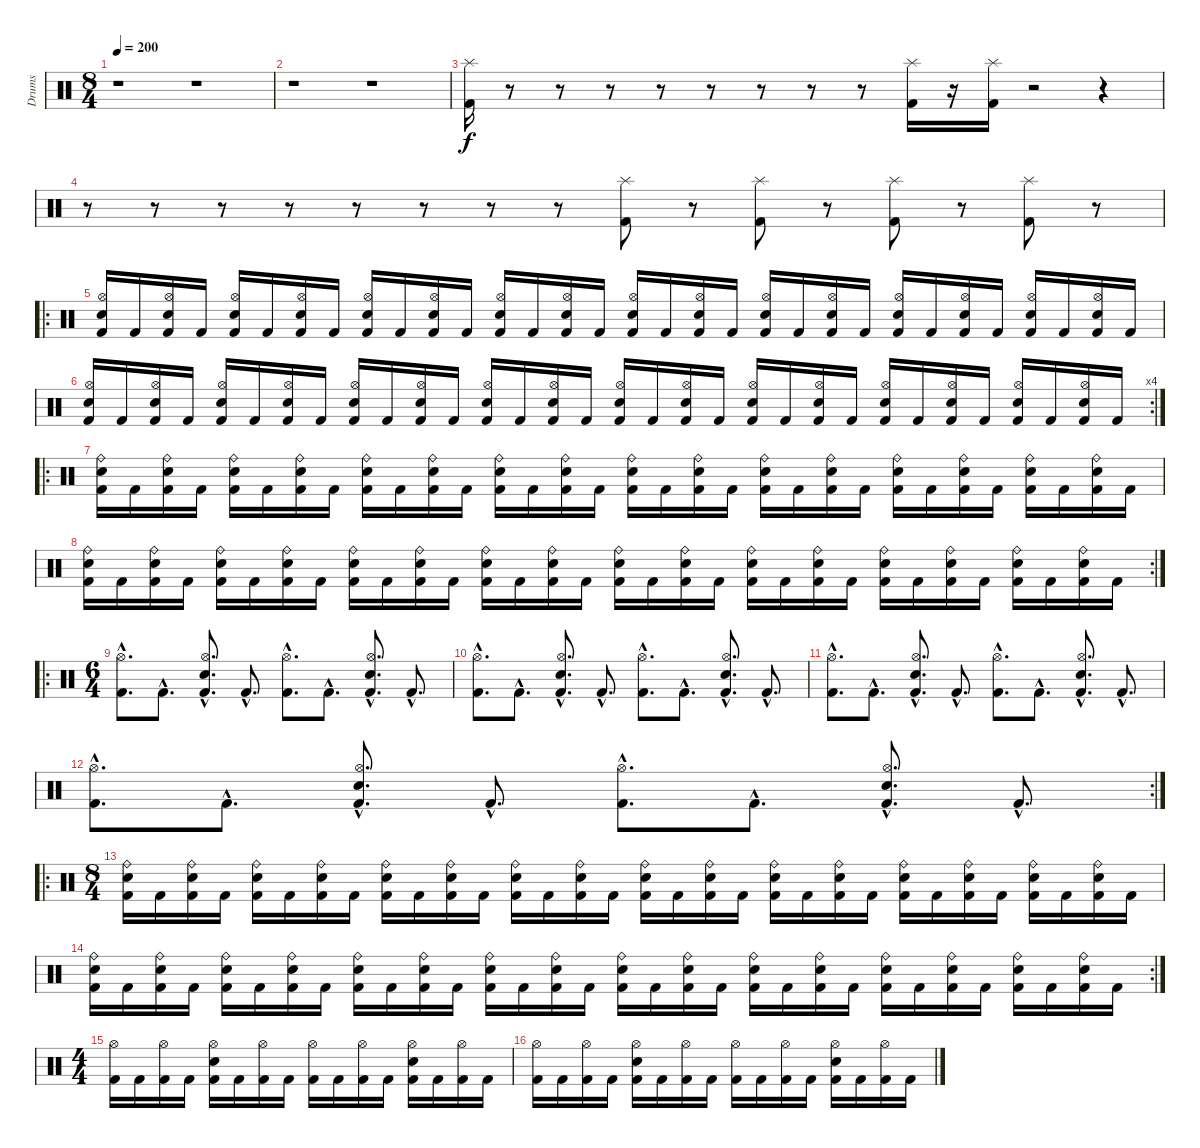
\track ("Drums" "Drums") {instrument percussion}
\staff {score}
\articulation defaults
\ts (8 4)
\tempo 200
\clef neutral
\ks c
r.1{dy f} r.1 |
r.1 r.1 |
("Splash (hit)" "Kick (hit) 2"{pm}).16 r.8 r.8 r.8 r.8 r.8 r.8 r.8 r.8 ("Splash (hit)" "Kick (hit) 2"{pm}).16 r.16 ("Splash (hit)" "Kick (hit) 2"{pm}).16 r.2 r.4 |
r.8 r.8 r.8 r.8 r.8 r.8 r.8 r.8 ("Splash (hit)" "Kick (hit) 2").8 r.8 ("Splash (hit)" "Kick (hit) 2"{pm}).8 r.8 ("Splash (hit)" "Kick (hit) 2"{pm}).8 r.8 ("Splash (hit)" "Kick (hit) 2"{pm}).8 r.8 |
\ro
("Hi-Hat (open)" "Snare (hit) 2" "Kick (hit) 2").16 "Kick (hit) 2".16 ("Hi-Hat (open)" "Snare (hit) 2" "Kick (hit) 2").16 "Kick (hit) 2".16 ("Hi-Hat (open)" "Snare (hit) 2" "Kick (hit) 2").16 "Kick (hit) 2".16 ("Hi-Hat (open)" "Snare (hit) 2" "Kick (hit) 2").16 "Kick (hit) 2".16 ("Hi-Hat (open)" "Snare (hit) 2" "Kick (hit) 2").16 "Kick (hit) 2".16 ("Hi-Hat (open)" "Snare (hit) 2" "Kick (hit) 2").16 "Kick (hit) 2".16 ("Hi-Hat (open)" "Snare (hit) 2" "Kick (hit) 2").16 "Kick (hit) 2".16 ("Hi-Hat (open)" "Snare (hit) 2" "Kick (hit) 2").16 "Kick (hit) 2".16 ("Hi-Hat (open)" "Snare (hit) 2" "Kick (hit) 2").16 "Kick (hit) 2".16 ("Hi-Hat (open)" "Snare (hit) 2" "Kick (hit) 2").16 "Kick (hit) 2".16 ("Hi-Hat (open)" "Snare (hit) 2" "Kick (hit) 2").16 "Kick (hit) 2".16 ("Hi-Hat (open)" "Snare (hit) 2" "Kick (hit) 2").16 "Kick (hit) 2".16 ("Hi-Hat (open)" "Snare (hit) 2" "Kick (hit) 2").16 "Kick (hit) 2".16 ("Hi-Hat (open)" "Snare (hit) 2" "Kick (hit) 2").16 "Kick (hit) 2".16 ("Hi-Hat (open)" "Snare (hit) 2" "Kick (hit) 2").16 "Kick (hit) 2".16 ("Hi-Hat (open)" "Snare (hit) 2" "Kick (hit) 2").16 "Kick (hit) 2".16 |
\rc 4
("Hi-Hat (open)" "Snare (hit) 2" "Kick (hit) 2").16 "Kick (hit) 2".16 ("Hi-Hat (open)" "Snare (hit) 2" "Kick (hit) 2").16 "Kick (hit) 2".16 ("Hi-Hat (open)" "Snare (hit) 2" "Kick (hit) 2").16 "Kick (hit) 2".16 ("Hi-Hat (open)" "Snare (hit) 2" "Kick (hit) 2").16 "Kick (hit) 2".16 ("Hi-Hat (open)" "Snare (hit) 2" "Kick (hit) 2").16 "Kick (hit) 2".16 ("Hi-Hat (open)" "Snare (hit) 2" "Kick (hit) 2").16 "Kick (hit) 2".16 ("Hi-Hat (open)" "Snare (hit) 2" "Kick (hit) 2").16 "Kick (hit) 2".16 ("Hi-Hat (open)" "Snare (hit) 2" "Kick (hit) 2").16 "Kick (hit) 2".16 ("Hi-Hat (open)" "Snare (hit) 2" "Kick (hit) 2").16 "Kick (hit) 2".16 ("Hi-Hat (open)" "Snare (hit) 2" "Kick (hit) 2").16 "Kick (hit) 2".16 ("Hi-Hat (open)" "Snare (hit) 2" "Kick (hit) 2").16 "Kick (hit) 2".16 ("Hi-Hat (open)" "Snare (hit) 2" "Kick (hit) 2").16 "Kick (hit) 2".16 ("Hi-Hat (open)" "Snare (hit) 2" "Kick (hit) 2").16 "Kick (hit) 2".16 ("Hi-Hat (open)" "Snare (hit) 2" "Kick (hit) 2").16 "Kick (hit) 2".16 ("Hi-Hat (open)" "Snare (hit) 2" "Kick (hit) 2").16 "Kick (hit) 2".16 ("Hi-Hat (open)" "Snare (hit) 2" "Kick (hit) 2").16 "Kick (hit) 2".16 |
\ro
("Ride (bell)" "Snare (hit) 2" "Kick (hit) 2").16 "Kick (hit) 2".16 ("Ride (bell)" "Snare (hit) 2" "Kick (hit) 2").16 "Kick (hit) 2".16 ("Ride (bell)" "Snare (hit) 2" "Kick (hit) 2").16 "Kick (hit) 2".16 ("Ride (bell)" "Snare (hit) 2" "Kick (hit) 2").16 "Kick (hit) 2".16 ("Ride (bell)" "Snare (hit) 2" "Kick (hit) 2").16 "Kick (hit) 2".16 ("Ride (bell)" "Snare (hit) 2" "Kick (hit) 2").16 "Kick (hit) 2".16 ("Ride (bell)" "Snare (hit) 2" "Kick (hit) 2").16 "Kick (hit) 2".16 ("Ride (bell)" "Snare (hit) 2" "Kick (hit) 2").16 "Kick (hit) 2".16 ("Ride (bell)" "Snare (hit) 2" "Kick (hit) 2").16 "Kick (hit) 2".16 ("Ride (bell)" "Snare (hit) 2" "Kick (hit) 2").16 "Kick (hit) 2".16 ("Ride (bell)" "Snare (hit) 2" "Kick (hit) 2").16 "Kick (hit) 2".16 ("Ride (bell)" "Snare (hit) 2" "Kick (hit) 2").16 "Kick (hit) 2".16 ("Ride (bell)" "Snare (hit) 2" "Kick (hit) 2").16 "Kick (hit) 2".16 ("Ride (bell)" "Snare (hit) 2" "Kick (hit) 2").16 "Kick (hit) 2".16 ("Ride (bell)" "Snare (hit) 2" "Kick (hit) 2").16 "Kick (hit) 2".16 ("Ride (bell)" "Snare (hit) 2" "Kick (hit) 2").16 "Kick (hit) 2".16 |
\rc 2
("Ride (bell)" "Snare (hit) 2" "Kick (hit) 2").16 "Kick (hit) 2".16 ("Ride (bell)" "Snare (hit) 2" "Kick (hit) 2").16 "Kick (hit) 2".16 ("Ride (bell)" "Snare (hit) 2" "Kick (hit) 2").16 "Kick (hit) 2".16 ("Ride (bell)" "Snare (hit) 2" "Kick (hit) 2").16 "Kick (hit) 2".16 ("Ride (bell)" "Snare (hit) 2" "Kick (hit) 2").16 "Kick (hit) 2".16 ("Ride (bell)" "Snare (hit) 2" "Kick (hit) 2").16 "Kick (hit) 2".16 ("Ride (bell)" "Snare (hit) 2" "Kick (hit) 2").16 "Kick (hit) 2".16 ("Ride (bell)" "Snare (hit) 2" "Kick (hit) 2").16 "Kick (hit) 2".16 ("Ride (bell)" "Snare (hit) 2" "Kick (hit) 2").16 "Kick (hit) 2".16 ("Ride (bell)" "Snare (hit) 2" "Kick (hit) 2").16 "Kick (hit) 2".16 ("Ride (bell)" "Snare (hit) 2" "Kick (hit) 2").16 "Kick (hit) 2".16 ("Ride (bell)" "Snare (hit) 2" "Kick (hit) 2").16 "Kick (hit) 2".16 ("Ride (bell)" "Snare (hit) 2" "Kick (hit) 2").16 "Kick (hit) 2".16 ("Ride (bell)" "Snare (hit) 2" "Kick (hit) 2").16 "Kick (hit) 2".16 ("Ride (bell)" "Snare (hit) 2" "Kick (hit) 2").16 "Kick (hit) 2".16 ("Ride (bell)" "Snare (hit) 2" "Kick (hit) 2").16 "Kick (hit) 2".16 |
\ro
\ts (6 4)
("Hi-Hat (open)"{hac} "Kick (hit) 2"{hac}).8{d} "Kick (hit) 2"{hac}.8{d} ("Hi-Hat (open)"{hac} "Snare (hit) 2"{hac} "Kick (hit) 2"{hac}).8{d} "Kick (hit) 2"{hac}.8{d} ("Hi-Hat (open)"{hac} "Kick (hit) 2"{hac}).8{d} "Kick (hit) 2"{hac}.8{d} ("Hi-Hat (open)"{hac} "Snare (hit) 2"{hac} "Kick (hit) 2"{hac}).8{d} "Kick (hit) 2"{hac}.8{d} |
("Hi-Hat (open)"{hac} "Kick (hit) 2"{hac}).8{d} "Kick (hit) 2"{hac}.8{d} ("Hi-Hat (open)"{hac} "Snare (hit) 2"{hac} "Kick (hit) 2"{hac}).8{d} "Kick (hit) 2"{hac}.8{d} ("Hi-Hat (open)"{hac} "Kick (hit) 2"{hac}).8{d} "Kick (hit) 2"{hac}.8{d} ("Hi-Hat (open)"{hac} "Snare (hit) 2"{hac} "Kick (hit) 2"{hac}).8{d} "Kick (hit) 2"{hac}.8{d} |
("Hi-Hat (open)"{hac} "Kick (hit) 2"{hac}).8{d} "Kick (hit) 2"{hac}.8{d} ("Hi-Hat (open)"{hac} "Snare (hit) 2"{hac} "Kick (hit) 2"{hac}).8{d} "Kick (hit) 2"{hac}.8{d} ("Hi-Hat (open)"{hac} "Kick (hit) 2"{hac}).8{d} "Kick (hit) 2"{hac}.8{d} ("Hi-Hat (open)"{hac} "Snare (hit) 2"{hac} "Kick (hit) 2"{hac}).8{d} "Kick (hit) 2"{hac}.8{d} |
\rc 2
("Hi-Hat (open)"{hac} "Kick (hit) 2"{hac}).8{d} "Kick (hit) 2"{hac}.8{d} ("Hi-Hat (open)"{hac} "Snare (hit) 2"{hac} "Kick (hit) 2"{hac}).8{d} "Kick (hit) 2"{hac}.8{d} ("Hi-Hat (open)"{hac} "Kick (hit) 2"{hac}).8{d} "Kick (hit) 2"{hac}.8{d} ("Hi-Hat (open)"{hac} "Snare (hit) 2"{hac} "Kick (hit) 2"{hac}).8{d} "Kick (hit) 2"{hac}.8{d} |
\ro
\ts (8 4)
("Ride (bell)" "Snare (hit) 2" "Kick (hit) 2").16 "Kick (hit) 2".16 ("Ride (bell)" "Snare (hit) 2" "Kick (hit) 2").16 "Kick (hit) 2".16 ("Ride (bell)" "Snare (hit) 2" "Kick (hit) 2").16 "Kick (hit) 2".16 ("Ride (bell)" "Snare (hit) 2" "Kick (hit) 2").16 "Kick (hit) 2".16 ("Ride (bell)" "Snare (hit) 2" "Kick (hit) 2").16 "Kick (hit) 2".16 ("Ride (bell)" "Snare (hit) 2" "Kick (hit) 2").16 "Kick (hit) 2".16 ("Ride (bell)" "Snare (hit) 2" "Kick (hit) 2").16 "Kick (hit) 2".16 ("Ride (bell)" "Snare (hit) 2" "Kick (hit) 2").16 "Kick (hit) 2".16 ("Ride (bell)" "Snare (hit) 2" "Kick (hit) 2").16 "Kick (hit) 2".16 ("Ride (bell)" "Snare (hit) 2" "Kick (hit) 2").16 "Kick (hit) 2".16 ("Ride (bell)" "Snare (hit) 2" "Kick (hit) 2").16 "Kick (hit) 2".16 ("Ride (bell)" "Snare (hit) 2" "Kick (hit) 2").16 "Kick (hit) 2".16 ("Ride (bell)" "Snare (hit) 2" "Kick (hit) 2").16 "Kick (hit) 2".16 ("Ride (bell)" "Snare (hit) 2" "Kick (hit) 2").16 "Kick (hit) 2".16 ("Ride (bell)" "Snare (hit) 2" "Kick (hit) 2").16 "Kick (hit) 2".16 ("Ride (bell)" "Snare (hit) 2" "Kick (hit) 2").16 "Kick (hit) 2".16 |
\rc 2
("Ride (bell)" "Snare (hit) 2" "Kick (hit) 2").16 "Kick (hit) 2".16 ("Ride (bell)" "Snare (hit) 2" "Kick (hit) 2").16 "Kick (hit) 2".16 ("Ride (bell)" "Snare (hit) 2" "Kick (hit) 2").16 "Kick (hit) 2".16 ("Ride (bell)" "Snare (hit) 2" "Kick (hit) 2").16 "Kick (hit) 2".16 ("Ride (bell)" "Snare (hit) 2" "Kick (hit) 2").16 "Kick (hit) 2".16 ("Ride (bell)" "Snare (hit) 2" "Kick (hit) 2").16 "Kick (hit) 2".16 ("Ride (bell)" "Snare (hit) 2" "Kick (hit) 2").16 "Kick (hit) 2".16 ("Ride (bell)" "Snare (hit) 2" "Kick (hit) 2").16 "Kick (hit) 2".16 ("Ride (bell)" "Snare (hit) 2" "Kick (hit) 2").16 "Kick (hit) 2".16 ("Ride (bell)" "Snare (hit) 2" "Kick (hit) 2").16 "Kick (hit) 2".16 ("Ride (bell)" "Snare (hit) 2" "Kick (hit) 2").16 "Kick (hit) 2".16 ("Ride (bell)" "Snare (hit) 2" "Kick (hit) 2").16 "Kick (hit) 2".16 ("Ride (bell)" "Snare (hit) 2" "Kick (hit) 2").16 "Kick (hit) 2".16 ("Ride (bell)" "Snare (hit) 2" "Kick (hit) 2").16 "Kick (hit) 2".16 ("Ride (bell)" "Snare (hit) 2" "Kick (hit) 2").16 "Kick (hit) 2".16 ("Ride (bell)" "Snare (hit) 2" "Kick (hit) 2").16 "Kick (hit) 2".16 |
\ts (4 4)
("Hi-Hat (open)" "Kick (hit) 2").16 "Kick (hit) 2".16 ("Hi-Hat (open)" "Kick (hit) 2").16 "Kick (hit) 2".16 ("Hi-Hat (open)" "Snare (hit) 2" "Kick (hit) 2").16 "Kick (hit) 2".16 ("Hi-Hat (open)" "Kick (hit) 2").16 "Kick (hit) 2".16 ("Hi-Hat (open)" "Kick (hit) 2").16 "Kick (hit) 2".16 ("Hi-Hat (open)" "Kick (hit) 2").16 "Kick (hit) 2".16 ("Hi-Hat (open)" "Snare (hit) 2" "Kick (hit) 2").16 "Kick (hit) 2".16 ("Hi-Hat (open)" "Kick (hit) 2").16 "Kick (hit) 2".16 |
("Hi-Hat (open)" "Kick (hit) 2").16 "Kick (hit) 2".16 ("Hi-Hat (open)" "Kick (hit) 2").16 "Kick (hit) 2".16 ("Hi-Hat (open)" "Snare (hit) 2" "Kick (hit) 2").16 "Kick (hit) 2".16 ("Hi-Hat (open)" "Kick (hit) 2").16 "Kick (hit) 2".16 ("Hi-Hat (open)" "Kick (hit) 2").16 "Kick (hit) 2".16 ("Hi-Hat (open)" "Kick (hit) 2").16 "Kick (hit) 2".16 ("Hi-Hat (open)" "Snare (hit) 2" "Kick (hit) 2").16 "Kick (hit) 2".16 ("Hi-Hat (open)" "Kick (hit) 2").16 "Kick (hit) 2".16
